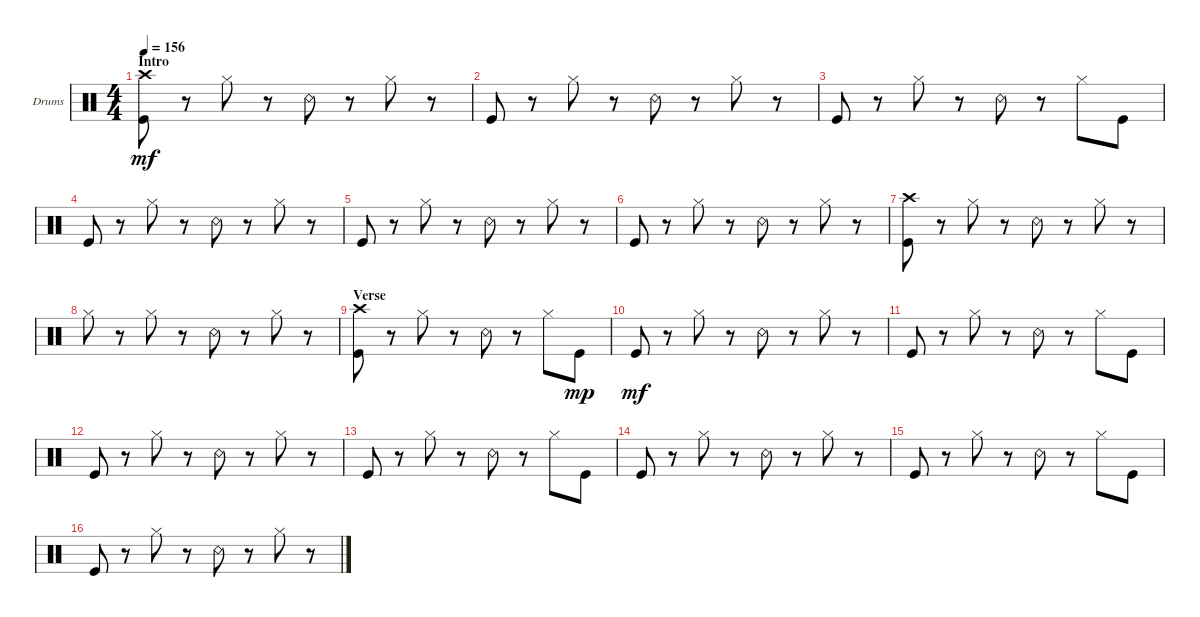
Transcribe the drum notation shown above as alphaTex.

\defaultSystemsLayout 4
\bracketExtendMode groupsimilarinstruments
\firstSystemTrackNameOrientation horizontal
\otherSystemsTrackNameOrientation horizontal
\track ("Drumkit" "Drums") {instrument percussion}
\staff {score}
\articulation defaults
\ts (4 4)
\section ("" "Intro")
\tempo 156
\clef neutral
\ks c
("Crash high (hit)" "Kick (hit)").8{dy mf} r.8 "Hi-Hat (closed)".8 r.8 "Snare (rim shot)".8 r.8 "Hi-Hat (closed)".8 r.8 |
"Kick (hit)".8 r.8 "Hi-Hat (closed)".8 r.8 "Snare (rim shot)".8 r.8 "Hi-Hat (closed)".8 r.8 |
"Kick (hit)".8 r.8 "Hi-Hat (closed)".8 r.8 "Snare (rim shot)".8 r.8 "Hi-Hat (closed)".8 "Kick (hit)".8 |
"Kick (hit)".8 r.8 "Hi-Hat (closed)".8 r.8 "Snare (rim shot)".8 r.8 "Hi-Hat (closed)".8 r.8 |
"Kick (hit)".8 r.8 "Hi-Hat (closed)".8 r.8 "Snare (rim shot)".8 r.8 "Hi-Hat (closed)".8 r.8 |
"Kick (hit)".8 r.8 "Hi-Hat (closed)".8 r.8 "Snare (rim shot)".8 r.8 "Hi-Hat (closed)".8 r.8 |
("Crash high (hit)" "Kick (hit)").8 r.8 "Hi-Hat (closed)".8 r.8 "Snare (rim shot)".8 r.8 "Hi-Hat (closed)".8 r.8 |
"Hi-Hat (closed)".8 r.8 "Hi-Hat (closed)".8 r.8 "Snare (rim shot)".8 r.8 "Hi-Hat (closed)".8 r.8 |
\section ("" "Verse")
("Crash high (hit)" "Kick (hit)").8 r.8 "Hi-Hat (closed)".8 r.8 "Snare (rim shot)".8 r.8 "Hi-Hat (closed)".8 "Kick (hit)".8{dy mp} |
"Kick (hit)".8{dy mf} r.8 "Hi-Hat (closed)".8 r.8 "Snare (rim shot)".8 r.8 "Hi-Hat (closed)".8 r.8 |
"Kick (hit)".8 r.8 "Hi-Hat (closed)".8 r.8 "Snare (rim shot)".8 r.8 "Hi-Hat (closed)".8 "Kick (hit)".8 |
"Kick (hit)".8 r.8 "Hi-Hat (closed)".8 r.8 "Snare (rim shot)".8 r.8 "Hi-Hat (closed)".8 r.8 |
"Kick (hit)".8 r.8 "Hi-Hat (closed)".8 r.8 "Snare (rim shot)".8 r.8 "Hi-Hat (closed)".8 "Kick (hit)".8 |
"Kick (hit)".8 r.8 "Hi-Hat (closed)".8 r.8 "Snare (rim shot)".8 r.8 "Hi-Hat (closed)".8 r.8 |
"Kick (hit)".8 r.8 "Hi-Hat (closed)".8 r.8 "Snare (rim shot)".8 r.8 "Hi-Hat (closed)".8 "Kick (hit)".8 |
"Kick (hit)".8 r.8 "Hi-Hat (closed)".8 r.8 "Snare (rim shot)".8 r.8 "Hi-Hat (closed)".8 r.8
